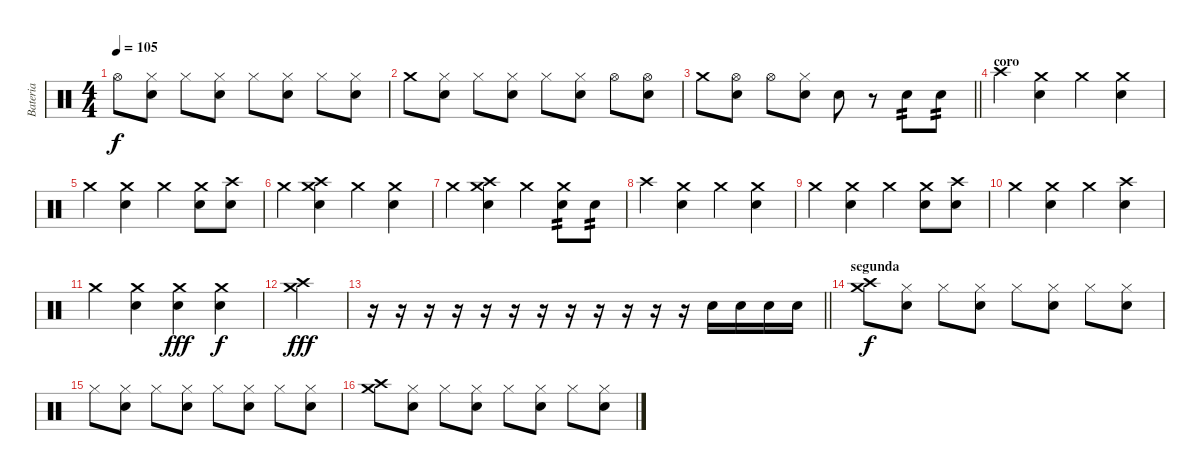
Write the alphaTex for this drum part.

\track ("Bateria" "Bateria") {instrument percussion}
\staff {score}
\articulation defaults
\ts (4 4)
\tempo 105
\clef neutral
\ks c "Hi-Hat (open)".8{dy f}
("Hi-Hat (closed)" "Snare (hit) 2").8 "Hi-Hat (closed)".8 ("Hi-Hat (closed)" "Snare (hit) 2").8 "Hi-Hat (closed)".8 ("Hi-Hat (closed)" "Snare (hit) 2").8 "Hi-Hat (closed)".8 ("Hi-Hat (closed)" "Snare (hit) 2").8 |
"Crash medium (hit)".8 ("Hi-Hat (closed)" "Snare (hit) 2").8 "Hi-Hat (closed)".8 ("Hi-Hat (closed)" "Snare (hit) 2").8 "Hi-Hat (closed)".8 ("Hi-Hat (closed)" "Snare (hit) 2").8 "Hi-Hat (open)".8 ("Hi-Hat (open)" "Snare (hit) 2").8 |
\barLineRight lightlight "Crash medium (hit)".8
("Hi-Hat (open)" "Snare (hit) 2").8 "Hi-Hat (open)".8 ("Hi-Hat (closed)" "Snare (hit) 2").8 "Snare (hit) 2".8 r.8 "Snare (hit) 2".8{tp 2} "Snare (hit) 2".8{tp 2} |
\section ("" "coro")
"Crash high (hit)".4 ("Crash medium (hit)" "Snare (hit) 2").4 "Crash medium (hit)".4 ("Crash medium (hit)" "Snare (hit) 2").4 |
"Crash medium (hit)".4 ("Crash medium (hit)" "Snare (hit) 2").4 "Crash medium (hit)".4 ("Crash medium (hit)" "Snare (hit) 2").8 ("Crash high (hit)" "Electric Snare (hit)").8 |
"Crash medium (hit)".4 ("Crash high (hit)" "Crash medium (hit)" "Snare (hit) 2").4 "Crash medium (hit)".4 ("Crash medium (hit)" "Snare (hit) 2").4 |
"Crash medium (hit)".4 ("Crash high (hit)" "Crash medium (hit)" "Snare (hit) 2").4 "Crash medium (hit)".4 ("Crash medium (hit)" "Electric Snare (hit)").8{tp 2} "Snare (hit) 2".8{tp 2} |
"Crash high (hit)".4 ("Crash medium (hit)" "Snare (hit) 2").4 "Crash medium (hit)".4 ("Crash medium (hit)" "Snare (hit) 2").4 |
"Crash medium (hit)".4 ("Crash medium (hit)" "Snare (hit) 2").4 "Crash medium (hit)".4 ("Crash medium (hit)" "Snare (hit) 2").8 ("Crash high (hit)" "Electric Snare (hit)").8 |
"Crash medium (hit)".4 ("Crash medium (hit)" "Snare (hit) 2").4 "Crash medium (hit)".4 ("Crash high (hit)" "Snare (hit) 2").4 |
"Crash medium (hit)".4 ("Crash medium (hit)" "Snare (hit) 2").4 ("Crash medium (hit)" "Snare (hit) 2").4{dy fff} ("Crash medium (hit)" "Snare (hit) 2").4{dy f} |
("Crash high (hit)" "Crash medium (hit)").4{dy fff} |
\barLineRight lightlight
r.16 r.16 r.16 r.16 r.16 r.16 r.16 r.16 r.16 r.16 r.16 r.16 "Snare (hit) 2".16 "Snare (hit) 2".16 "Snare (hit) 2".16 "Snare (hit) 2".16 |
\section ("" "segunda")
("Crash high (hit)" "Crash medium (hit)").8{dy f} ("Hi-Hat (closed)" "Snare (hit) 2").8 "Hi-Hat (closed)".8 ("Hi-Hat (closed)" "Snare (hit) 2").8 "Hi-Hat (closed)".8 ("Hi-Hat (closed)" "Snare (hit) 2").8 "Hi-Hat (closed)".8 ("Hi-Hat (closed)" "Snare (hit) 2").8 |
"Hi-Hat (closed)".8 ("Hi-Hat (closed)" "Snare (hit) 2").8 "Hi-Hat (closed)".8 ("Hi-Hat (closed)" "Snare (hit) 2").8 "Hi-Hat (closed)".8 ("Hi-Hat (closed)" "Snare (hit) 2").8 "Hi-Hat (closed)".8 ("Hi-Hat (closed)" "Snare (hit) 2").8 |
("Crash high (hit)" "Crash medium (hit)").8 ("Hi-Hat (closed)" "Snare (hit) 2").8 "Hi-Hat (closed)".8 ("Hi-Hat (closed)" "Snare (hit) 2").8 "Hi-Hat (closed)".8 ("Hi-Hat (closed)" "Snare (hit) 2").8 "Hi-Hat (closed)".8 ("Hi-Hat (closed)" "Snare (hit) 2").8
